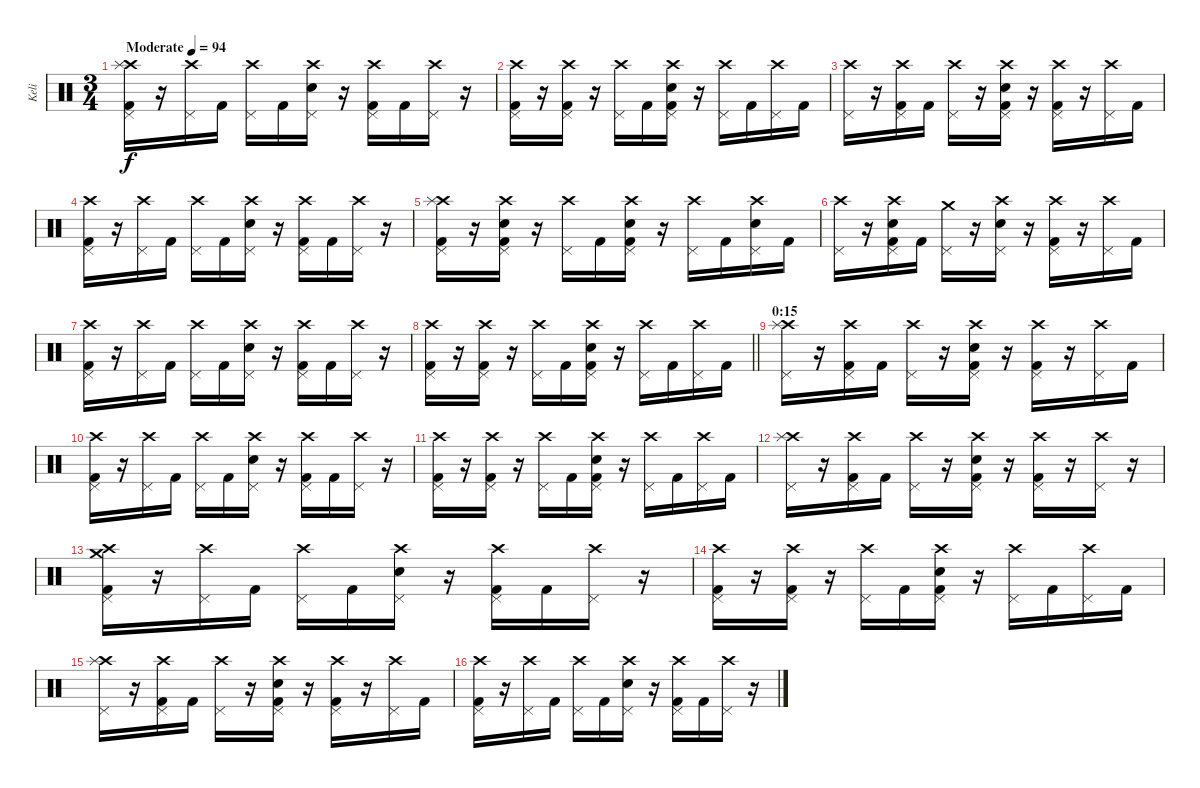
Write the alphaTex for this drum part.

\track ("Keli" "Keli") {instrument percussion}
\staff {score}
\articulation defaults
\ts (3 4)
\section ("" "")
\tempo (94 "Moderate")
\clef neutral
\ks c
("Crash high (hit)" "Splash (hit)" "Pedal Hi-Hat (hit)" "Kick (hit) 2").16{dy f} r.16 ("Crash high (hit)" "Pedal Hi-Hat (hit)").16 "Kick (hit) 2".16 ("Crash high (hit)" "Pedal Hi-Hat (hit)").16 "Kick (hit) 2".16 ("Crash high (hit)" "Snare (hit) 2" "Pedal Hi-Hat (hit)").16 r.16 ("Crash high (hit)" "Pedal Hi-Hat (hit)" "Kick (hit) 2").16 "Kick (hit) 2".16 ("Crash high (hit)" "Pedal Hi-Hat (hit)").16 r.16 |
("Crash high (hit)" "Pedal Hi-Hat (hit)" "Kick (hit) 2").16 r.16 ("Crash high (hit)" "Pedal Hi-Hat (hit)" "Kick (hit) 2").16 r.16 ("Crash high (hit)" "Pedal Hi-Hat (hit)").16 "Kick (hit) 2".16 ("Crash high (hit)" "Snare (hit) 2" "Pedal Hi-Hat (hit)" "Kick (hit) 2").16 r.16 ("Crash high (hit)" "Pedal Hi-Hat (hit)").16 "Kick (hit) 2".16 ("Crash high (hit)" "Pedal Hi-Hat (hit)").16 "Kick (hit) 2".16 |
("Crash high (hit)" "Pedal Hi-Hat (hit)").16 r.16 ("Crash high (hit)" "Pedal Hi-Hat (hit)" "Kick (hit) 2").16 "Kick (hit) 2".16 ("Crash high (hit)" "Pedal Hi-Hat (hit)").16 r.16 ("Crash high (hit)" "Snare (hit) 2" "Pedal Hi-Hat (hit)" "Kick (hit) 2").16 r.16 ("Crash high (hit)" "Pedal Hi-Hat (hit)" "Kick (hit) 2").16 r.16 ("Crash high (hit)" "Pedal Hi-Hat (hit)").16 "Kick (hit) 2".16 |
("Crash high (hit)" "Pedal Hi-Hat (hit)" "Kick (hit) 2").16 r.16 ("Crash high (hit)" "Pedal Hi-Hat (hit)").16 "Kick (hit) 2".16 ("Crash high (hit)" "Pedal Hi-Hat (hit)").16 "Kick (hit) 2".16 ("Crash high (hit)" "Snare (hit) 2" "Pedal Hi-Hat (hit)").16 r.16 ("Crash high (hit)" "Pedal Hi-Hat (hit)" "Kick (hit) 2").16 "Kick (hit) 2".16 ("Crash high (hit)" "Pedal Hi-Hat (hit)").16 r.16 |
("Crash high (hit)" "Splash (hit)" "Pedal Hi-Hat (hit)" "Kick (hit) 2").16 r.16 ("Crash high (hit)" "Snare (hit) 2" "Pedal Hi-Hat (hit)" "Kick (hit) 2").16 r.16 ("Crash high (hit)" "Pedal Hi-Hat (hit)").16 "Kick (hit) 2".16 ("Crash high (hit)" "Snare (hit) 2" "Pedal Hi-Hat (hit)" "Kick (hit) 2").16 r.16 ("Crash high (hit)" "Pedal Hi-Hat (hit)").16 "Kick (hit) 2".16 ("Crash high (hit)" "Snare (hit) 2" "Pedal Hi-Hat (hit)").16 "Kick (hit) 2".16 |
("Crash high (hit)" "Pedal Hi-Hat (hit)").16 r.16 ("Crash high (hit)" "Snare (hit) 2" "Pedal Hi-Hat (hit)" "Kick (hit) 2").16 "Kick (hit) 2".16 ("Crash medium (hit)" "Pedal Hi-Hat (hit)").16 r.16 ("Crash high (hit)" "Snare (hit) 2" "Pedal Hi-Hat (hit)").16 r.16 ("Crash high (hit)" "Pedal Hi-Hat (hit)" "Kick (hit) 2").16 r.16 ("Crash high (hit)" "Pedal Hi-Hat (hit)").16 "Kick (hit) 2".16 |
("Crash high (hit)" "Pedal Hi-Hat (hit)" "Kick (hit) 2").16 r.16 ("Crash high (hit)" "Pedal Hi-Hat (hit)").16 "Kick (hit) 2".16 ("Crash high (hit)" "Pedal Hi-Hat (hit)").16 "Kick (hit) 2".16 ("Crash high (hit)" "Snare (hit) 2" "Pedal Hi-Hat (hit)").16 r.16 ("Crash high (hit)" "Pedal Hi-Hat (hit)" "Kick (hit) 2").16 "Kick (hit) 2".16 ("Crash high (hit)" "Pedal Hi-Hat (hit)").16 r.16 |
\barLineRight lightlight
("Crash high (hit)" "Pedal Hi-Hat (hit)" "Kick (hit) 2").16 r.16 ("Crash high (hit)" "Pedal Hi-Hat (hit)" "Kick (hit) 2").16 r.16 ("Crash high (hit)" "Pedal Hi-Hat (hit)").16 "Kick (hit) 2".16 ("Crash high (hit)" "Snare (hit) 2" "Pedal Hi-Hat (hit)" "Kick (hit) 2").16 r.16 ("Crash high (hit)" "Pedal Hi-Hat (hit)").16 "Kick (hit) 2".16 ("Crash high (hit)" "Pedal Hi-Hat (hit)").16 "Kick (hit) 2".16 |
\section ("" "0:15")
("Crash high (hit)" "Splash (hit)" "Pedal Hi-Hat (hit)").16 r.16 ("Crash high (hit)" "Pedal Hi-Hat (hit)" "Kick (hit) 2").16 "Kick (hit) 2".16 ("Crash high (hit)" "Pedal Hi-Hat (hit)").16 r.16 ("Crash high (hit)" "Snare (hit) 2" "Pedal Hi-Hat (hit)" "Kick (hit) 2").16 r.16 ("Crash high (hit)" "Pedal Hi-Hat (hit)" "Kick (hit) 2").16 r.16 ("Crash high (hit)" "Pedal Hi-Hat (hit)").16 "Kick (hit) 2".16 |
("Crash high (hit)" "Pedal Hi-Hat (hit)" "Kick (hit) 2").16 r.16 ("Crash high (hit)" "Pedal Hi-Hat (hit)").16 "Kick (hit) 2".16 ("Crash high (hit)" "Pedal Hi-Hat (hit)").16 "Kick (hit) 2".16 ("Crash high (hit)" "Snare (hit) 2" "Pedal Hi-Hat (hit)").16 r.16 ("Crash high (hit)" "Pedal Hi-Hat (hit)" "Kick (hit) 2").16 "Kick (hit) 2".16 ("Crash high (hit)" "Pedal Hi-Hat (hit)").16 r.16 |
("Crash high (hit)" "Pedal Hi-Hat (hit)" "Kick (hit) 2").16 r.16 ("Crash high (hit)" "Pedal Hi-Hat (hit)" "Kick (hit) 2").16 r.16 ("Crash high (hit)" "Pedal Hi-Hat (hit)").16 "Kick (hit) 2".16 ("Crash high (hit)" "Snare (hit) 2" "Pedal Hi-Hat (hit)" "Kick (hit) 2").16 r.16 ("Crash high (hit)" "Pedal Hi-Hat (hit)").16 "Kick (hit) 2".16 ("Crash high (hit)" "Pedal Hi-Hat (hit)").16 "Kick (hit) 2".16 |
("Crash high (hit)" "Splash (hit)" "Pedal Hi-Hat (hit)").16 r.16 ("Crash high (hit)" "Pedal Hi-Hat (hit)" "Kick (hit) 2").16 "Kick (hit) 2".16 ("Crash high (hit)" "Pedal Hi-Hat (hit)").16 r.16 ("Crash high (hit)" "Snare (hit) 2" "Pedal Hi-Hat (hit)" "Kick (hit) 2").16 r.16 ("Crash high (hit)" "Pedal Hi-Hat (hit)" "Kick (hit) 2").16 r.16 ("Crash high (hit)" "Pedal Hi-Hat (hit)").16 r.16 |
("Crash high (hit)" "Crash medium (hit)" "Pedal Hi-Hat (hit)" "Kick (hit) 2").16 r.16 ("Crash high (hit)" "Pedal Hi-Hat (hit)").16 "Kick (hit) 2".16 ("Crash high (hit)" "Pedal Hi-Hat (hit)").16 "Kick (hit) 2".16 ("Crash high (hit)" "Snare (hit) 2" "Pedal Hi-Hat (hit)").16 r.16 ("Crash high (hit)" "Pedal Hi-Hat (hit)" "Kick (hit) 2").16 "Kick (hit) 2".16 ("Crash high (hit)" "Pedal Hi-Hat (hit)").16 r.16 |
("Crash high (hit)" "Pedal Hi-Hat (hit)" "Kick (hit) 2").16 r.16 ("Crash high (hit)" "Pedal Hi-Hat (hit)" "Kick (hit) 2").16 r.16 ("Crash high (hit)" "Pedal Hi-Hat (hit)").16 "Kick (hit) 2".16 ("Crash high (hit)" "Snare (hit) 2" "Pedal Hi-Hat (hit)" "Kick (hit) 2").16 r.16 ("Crash high (hit)" "Pedal Hi-Hat (hit)").16 "Kick (hit) 2".16 ("Crash high (hit)" "Pedal Hi-Hat (hit)").16 "Kick (hit) 2".16 |
("Crash high (hit)" "Splash (hit)" "Pedal Hi-Hat (hit)").16 r.16 ("Crash high (hit)" "Pedal Hi-Hat (hit)" "Kick (hit) 2").16 "Kick (hit) 2".16 ("Crash high (hit)" "Pedal Hi-Hat (hit)").16 r.16 ("Crash high (hit)" "Snare (hit) 2" "Pedal Hi-Hat (hit)" "Kick (hit) 2").16 r.16 ("Crash high (hit)" "Pedal Hi-Hat (hit)" "Kick (hit) 2").16 r.16 ("Crash high (hit)" "Pedal Hi-Hat (hit)").16 "Kick (hit) 2".16 |
("Crash high (hit)" "Pedal Hi-Hat (hit)" "Kick (hit) 2").16 r.16 ("Crash high (hit)" "Pedal Hi-Hat (hit)").16 "Kick (hit) 2".16 ("Crash high (hit)" "Pedal Hi-Hat (hit)").16 "Kick (hit) 2".16 ("Crash high (hit)" "Snare (hit) 2" "Pedal Hi-Hat (hit)").16 r.16 ("Crash high (hit)" "Pedal Hi-Hat (hit)" "Kick (hit) 2").16 "Kick (hit) 2".16 ("Crash high (hit)" "Pedal Hi-Hat (hit)").16 r.16
